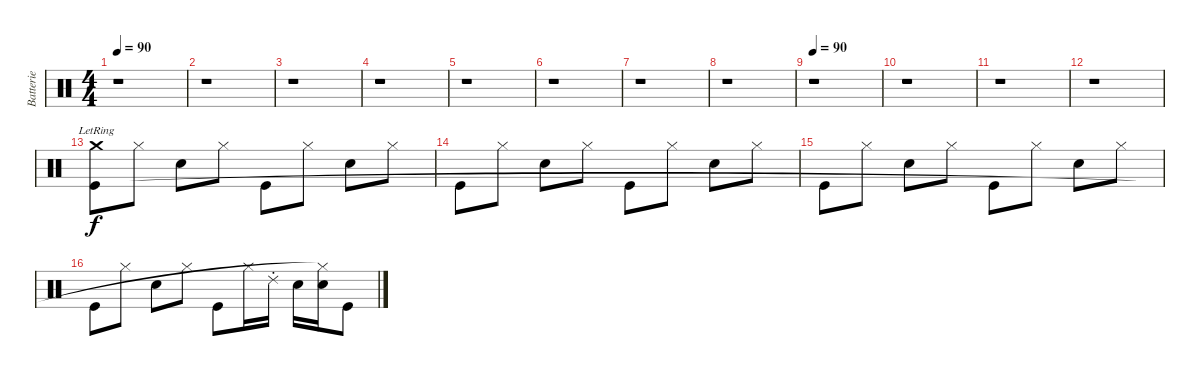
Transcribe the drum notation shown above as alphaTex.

\track ("Batterie" "Batterie") {instrument percussion}
\staff {score}
\articulation defaults
\ts (4 4)
\tempo 90
\tempo 70
\tempo 90
\clef neutral
\ks c
r.1{dy f} |
r.1 |
r.1 |
r.1 |
r.1 |
r.1 |
r.1 |
r.1 |
\tempo 90
r.1 |
r.1 |
r.1 |
r.1 |
("Crash medium (hit)"{lr} "Kick (hit)").8 "Hi-Hat (closed)".8 "Metronome (bell)".8 "Hi-Hat (closed)".8 "Kick (hit)".8 "Hi-Hat (closed)".8 "Metronome (bell)".8 "Hi-Hat (closed)".8 |
"Kick (hit)".8 "Hi-Hat (closed)".8 "Metronome (bell)".8 "Hi-Hat (closed)".8 "Kick (hit)".8 "Hi-Hat (closed)".8 "Metronome (bell)".8 "Hi-Hat (closed)".8 |
"Kick (hit)".8 "Hi-Hat (closed)".8 "Metronome (bell)".8 "Hi-Hat (closed)".8 "Kick (hit)".8 "Hi-Hat (closed)".8 "Metronome (bell)".8 "Hi-Hat (closed)".8 |
"Kick (hit)".8 "Hi-Hat (closed)".8 "Metronome (bell)".8 "Hi-Hat (closed)".8 "Kick (hit)".8 "Hi-Hat (closed)".16 "Ride (choke) 2".16 "Metronome (bell)".16 ("Metronome (bell)" "Hi-Hat (closed)"{t}).16 "Kick (hit)".8
